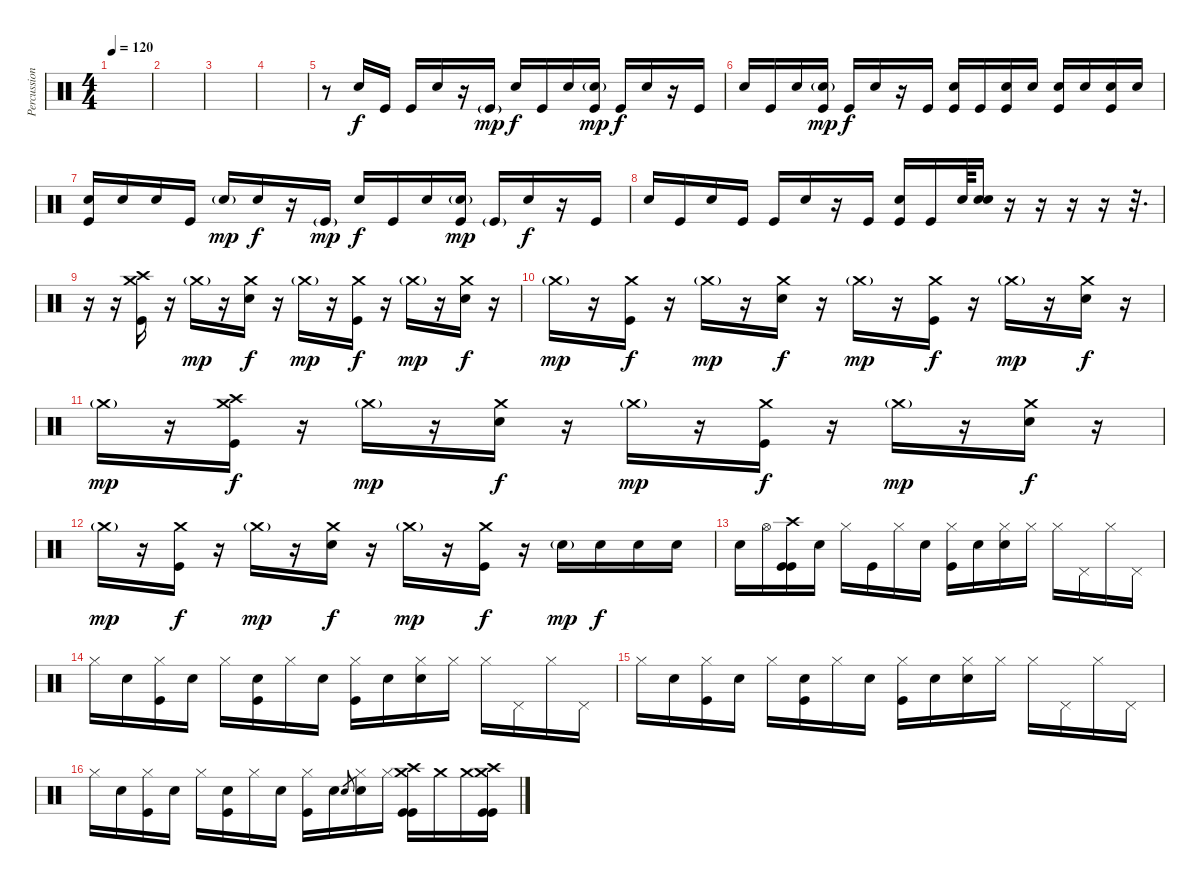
\track ("Percussion" "Percussion") {instrument percussion}
\staff {score}
\articulation defaults
\ts (4 4)
\tempo 120
\clef neutral
\ks c
|
|
|
|
r.8 "Snare (hit) 2".16 "Kick (hit)".16 "Kick (hit)".16 "Snare (hit) 2".16 r.16 "Kick (hit)"{g}.16{dy mp} "Snare (hit) 2".16{dy f} "Kick (hit)".16 "Snare (hit) 2".16 ("Snare (hit) 2"{g} "Kick (hit)").16{dy mp} "Kick (hit)".16{dy f} "Snare (hit) 2".16 r.16 "Kick (hit)".16 |
"Snare (hit) 2".16 "Kick (hit)".16 "Snare (hit) 2".16 ("Snare (hit) 2"{g} "Kick (hit)").16{dy mp} "Kick (hit)".16{dy f} "Snare (hit) 2".16 r.16 "Kick (hit)".16 ("Kick (hit)" "Snare (hit) 2").16 "Kick (hit)".16 ("Kick (hit)" "Snare (hit) 2").16 "Snare (hit) 2".16 ("Kick (hit)" "Snare (hit) 2").16 "Snare (hit) 2".16 ("Kick (hit)" "Snare (hit) 2").16 "Snare (hit) 2".16 |
("Kick (hit)" "Snare (hit) 2").16 "Snare (hit) 2".16 "Snare (hit) 2".16 "Kick (hit)".16 "Snare (hit) 2"{g}.16{dy mp} "Snare (hit) 2".16{dy f} r.16 "Kick (hit)"{g}.16{dy mp} "Snare (hit) 2".16{dy f} "Kick (hit)".16 "Snare (hit) 2".16 ("Snare (hit) 2"{g} "Kick (hit)").16{dy mp} "Kick (hit)"{g}.16 "Snare (hit) 2".16{dy f} r.16 "Kick (hit)".16 |
"Snare (hit) 2".16 "Kick (hit)".16 "Snare (hit) 2".16 "Kick (hit)".16 "Kick (hit)".16 "Snare (hit) 2".16 r.16 "Kick (hit)".16 ("Kick (hit)" "Snare (hit) 2").16 "Kick (hit)".16 "Snare (hit) 2".64 ("Snare (hit) 2" "Snare (hit) 2").16 r.16 r.16 r.16 r.16 r.32{d} |
r.16 r.16 ("Crash high (hit)" "Crash medium (hit)" "Kick (hit)").16 r.16 "Crash medium (hit)"{g}.16{dy mp} r.16 ("Crash medium (hit)" "Snare (hit) 2").16{dy f} r.16 "Crash medium (hit)"{g}.16{dy mp} r.16 ("Crash medium (hit)" "Kick (hit)").16{dy f} r.16 "Crash medium (hit)"{g}.16{dy mp} r.16 ("Crash medium (hit)" "Snare (hit) 2").16{dy f} r.16 |
"Crash medium (hit)"{g}.16{dy mp} r.16 ("Crash medium (hit)" "Kick (hit)").16{dy f} r.16 "Crash medium (hit)"{g}.16{dy mp} r.16 ("Crash medium (hit)" "Snare (hit) 2").16{dy f} r.16 "Crash medium (hit)"{g}.16{dy mp} r.16 ("Crash medium (hit)" "Kick (hit)").16{dy f} r.16 "Crash medium (hit)"{g}.16{dy mp} r.16 ("Crash medium (hit)" "Snare (hit) 2").16{dy f} r.16 |
"Crash medium (hit)"{g}.16{dy mp} r.16 ("Crash high (hit)" "Crash medium (hit)" "Kick (hit)").16{dy f} r.16 "Crash medium (hit)"{g}.16{dy mp} r.16 ("Crash medium (hit)" "Snare (hit) 2").16{dy f} r.16 "Crash medium (hit)"{g}.16{dy mp} r.16 ("Crash medium (hit)" "Kick (hit)").16{dy f} r.16 "Crash medium (hit)"{g}.16{dy mp} r.16 ("Crash medium (hit)" "Snare (hit) 2").16{dy f} r.16 |
"Crash medium (hit)"{g}.16{dy mp} r.16 ("Crash medium (hit)" "Kick (hit)").16{dy f} r.16 "Crash medium (hit)"{g}.16{dy mp} r.16 ("Crash medium (hit)" "Snare (hit) 2").16{dy f} r.16 "Crash medium (hit)"{g}.16{dy mp} r.16 ("Crash medium (hit)" "Kick (hit)").16{dy f} r.16 "Snare (hit) 2"{g}.16{dy mp} "Snare (hit) 2".16{dy f} "Snare (hit) 2".16 "Snare (hit) 2".16 |
"Snare (hit) 2".16 "Hi-Hat (open)".16 ("Crash high (hit)" "Kick (hit)" "Kick (hit)").16 "Snare (hit)"{x}.16 "Hi-Hat (closed)".16 "Kick (hit)".16 "Hi-Hat (closed)".16 "Snare (hit)"{x}.16 ("Hi-Hat (closed)" "Kick (hit)").16 "Snare (hit)"{x}.16 ("Hi-Hat (closed)" "Snare (hit) 2").16 "Hi-Hat (closed)"{x}.16 "Hi-Hat (closed)".16 "Pedal Hi-Hat (hit)"{x}.16 "Hi-Hat (closed)".16 "Pedal Hi-Hat (hit)"{x}.16 |
"Hi-Hat (closed)".16 "Snare (hit)"{x}.16 ("Hi-Hat (closed)" "Kick (hit)").16 "Snare (hit)"{x}.16 "Hi-Hat (closed)".16 ("Snare (hit)"{x} "Kick (hit)").16 "Hi-Hat (closed)".16 "Snare (hit)"{x}.16 ("Hi-Hat (closed)" "Kick (hit)").16 "Snare (hit)"{x}.16 ("Hi-Hat (closed)" "Snare (hit) 2").16 "Hi-Hat (closed)"{x}.16 "Hi-Hat (closed)".16 "Pedal Hi-Hat (hit)"{x}.16 "Hi-Hat (closed)".16 "Pedal Hi-Hat (hit)"{x}.16 |
"Hi-Hat (closed)".16 "Snare (hit)"{x}.16 ("Hi-Hat (closed)" "Kick (hit)").16 "Snare (hit)"{x}.16 "Hi-Hat (closed)".16 ("Snare (hit)"{x} "Kick (hit)").16 "Hi-Hat (closed)".16 "Snare (hit)"{x}.16 ("Hi-Hat (closed)" "Kick (hit)").16 "Snare (hit)"{x}.16 ("Hi-Hat (closed)" "Snare (hit) 2").16 "Hi-Hat (closed)"{x}.16 "Hi-Hat (closed)".16 "Pedal Hi-Hat (hit)"{x}.16 "Hi-Hat (closed)".16 "Pedal Hi-Hat (hit)"{x}.16 |
"Hi-Hat (closed)".16 "Snare (hit)"{x}.16 ("Hi-Hat (closed)" "Kick (hit)").16 "Snare (hit)"{x}.16 "Hi-Hat (closed)".16 ("Snare (hit)"{x} "Kick (hit)").16 "Hi-Hat (closed)".16 "Snare (hit)"{x}.16 ("Hi-Hat (closed)" "Kick (hit)").16 "Snare (hit)"{x}.16 "Snare (hit) 2".8{gr} ("Hi-Hat (closed)" "Snare (hit) 2").16 "Hi-Hat (closed)"{x}.16 ("Crash medium (hit)" "Crash high (hit)" "Kick (hit)" "Kick (hit)").16 "Crash medium (hit)"{x}.16 "Crash medium (hit)"{x}.16 ("Crash medium (hit)" "Crash high (hit)" "Kick (hit)" "Kick (hit)").16
